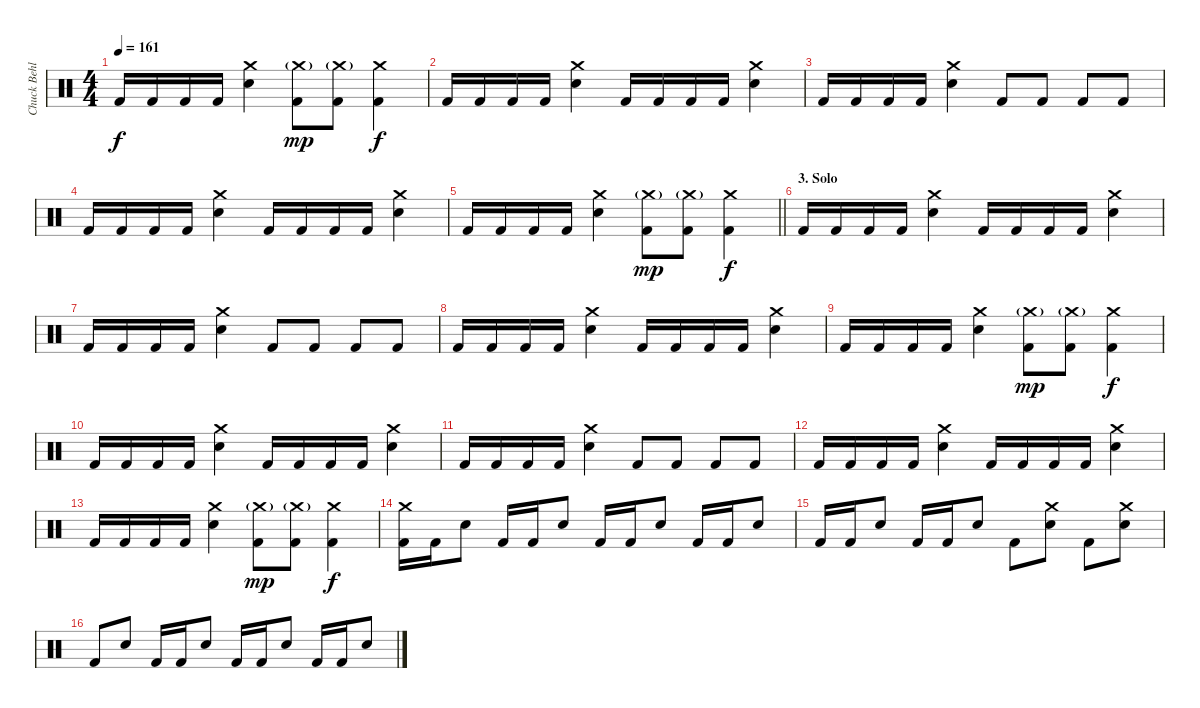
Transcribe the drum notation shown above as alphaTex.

\track ("Chuck Behler" "Chuck Behl") {instrument percussion}
\staff {score}
\articulation defaults
\ts (4 4)
\tempo 161
\clef neutral
\ks c "Kick (hit) 2".16{dy f} "Kick (hit) 2".16 "Kick (hit) 2".16 "Kick (hit) 2".16
("Crash medium (hit)" "Snare (hit) 2").4 ("Crash medium (hit)"{g} "Kick (hit) 2").8{dy mp} ("Crash medium (hit)"{g} "Kick (hit) 2").8 ("Crash medium (hit)" "Kick (hit) 2").4{dy f} |
"Kick (hit) 2".16 "Kick (hit) 2".16 "Kick (hit) 2".16 "Kick (hit) 2".16 ("Crash medium (hit)" "Snare (hit) 2").4 "Kick (hit) 2".16 "Kick (hit) 2".16 "Kick (hit) 2".16 "Kick (hit) 2".16 ("Crash medium (hit)" "Snare (hit) 2").4 |
"Kick (hit) 2".16 "Kick (hit) 2".16 "Kick (hit) 2".16 "Kick (hit) 2".16 ("Crash medium (hit)" "Snare (hit) 2").4 "Kick (hit) 2".8 "Kick (hit) 2".8 "Kick (hit) 2".8 "Kick (hit) 2".8 |
"Kick (hit) 2".16 "Kick (hit) 2".16 "Kick (hit) 2".16 "Kick (hit) 2".16 ("Crash medium (hit)" "Snare (hit) 2").4 "Kick (hit) 2".16 "Kick (hit) 2".16 "Kick (hit) 2".16 "Kick (hit) 2".16 ("Crash medium (hit)" "Snare (hit) 2").4 |
\barLineRight lightlight "Kick (hit) 2".16 "Kick (hit) 2".16 "Kick (hit) 2".16 "Kick (hit) 2".16
("Crash medium (hit)" "Snare (hit) 2").4 ("Crash medium (hit)"{g} "Kick (hit) 2").8{dy mp} ("Crash medium (hit)"{g} "Kick (hit) 2").8 ("Crash medium (hit)" "Kick (hit) 2").4{dy f} |
\section ("" "3. Solo")
"Kick (hit) 2".16 "Kick (hit) 2".16 "Kick (hit) 2".16 "Kick (hit) 2".16 ("Crash medium (hit)" "Snare (hit) 2").4 "Kick (hit) 2".16 "Kick (hit) 2".16 "Kick (hit) 2".16 "Kick (hit) 2".16 ("Crash medium (hit)" "Snare (hit) 2").4 |
"Kick (hit) 2".16 "Kick (hit) 2".16 "Kick (hit) 2".16 "Kick (hit) 2".16 ("Crash medium (hit)" "Snare (hit) 2").4 "Kick (hit) 2".8 "Kick (hit) 2".8 "Kick (hit) 2".8 "Kick (hit) 2".8 |
"Kick (hit) 2".16 "Kick (hit) 2".16 "Kick (hit) 2".16 "Kick (hit) 2".16 ("Crash medium (hit)" "Snare (hit) 2").4 "Kick (hit) 2".16 "Kick (hit) 2".16 "Kick (hit) 2".16 "Kick (hit) 2".16 ("Crash medium (hit)" "Snare (hit) 2").4 |
"Kick (hit) 2".16 "Kick (hit) 2".16 "Kick (hit) 2".16 "Kick (hit) 2".16 ("Crash medium (hit)" "Snare (hit) 2").4 ("Crash medium (hit)"{g} "Kick (hit) 2").8{dy mp} ("Crash medium (hit)"{g} "Kick (hit) 2").8 ("Crash medium (hit)" "Kick (hit) 2").4{dy f} |
"Kick (hit) 2".16 "Kick (hit) 2".16 "Kick (hit) 2".16 "Kick (hit) 2".16 ("Crash medium (hit)" "Snare (hit) 2").4 "Kick (hit) 2".16 "Kick (hit) 2".16 "Kick (hit) 2".16 "Kick (hit) 2".16 ("Crash medium (hit)" "Snare (hit) 2").4 |
"Kick (hit) 2".16 "Kick (hit) 2".16 "Kick (hit) 2".16 "Kick (hit) 2".16 ("Crash medium (hit)" "Snare (hit) 2").4 "Kick (hit) 2".8 "Kick (hit) 2".8 "Kick (hit) 2".8 "Kick (hit) 2".8 |
"Kick (hit) 2".16 "Kick (hit) 2".16 "Kick (hit) 2".16 "Kick (hit) 2".16 ("Crash medium (hit)" "Snare (hit) 2").4 "Kick (hit) 2".16 "Kick (hit) 2".16 "Kick (hit) 2".16 "Kick (hit) 2".16 ("Crash medium (hit)" "Snare (hit) 2").4 |
"Kick (hit) 2".16 "Kick (hit) 2".16 "Kick (hit) 2".16 "Kick (hit) 2".16 ("Crash medium (hit)" "Snare (hit) 2").4 ("Crash medium (hit)"{g} "Kick (hit) 2").8{dy mp} ("Crash medium (hit)"{g} "Kick (hit) 2").8 ("Crash medium (hit)" "Kick (hit) 2").4{dy f} |
("Crash medium (hit)" "Kick (hit) 2").16 "Kick (hit) 2".16 "Snare (hit) 2".8 "Kick (hit) 2".16 "Kick (hit) 2".16 "Snare (hit) 2".8 "Kick (hit) 2".16 "Kick (hit) 2".16 "Snare (hit) 2".8 "Kick (hit) 2".16 "Kick (hit) 2".16 "Snare (hit) 2".8 |
"Kick (hit) 2".16 "Kick (hit) 2".16 "Snare (hit) 2".8 "Kick (hit) 2".16 "Kick (hit) 2".16 "Snare (hit) 2".8 "Kick (hit) 2".8 ("Crash medium (hit)" "Snare (hit) 2").8 "Kick (hit) 2".8 ("Crash medium (hit)" "Snare (hit) 2").8 |
"Kick (hit) 2".8 "Snare (hit) 2".8 "Kick (hit) 2".16 "Kick (hit) 2".16 "Snare (hit) 2".8 "Kick (hit) 2".16 "Kick (hit) 2".16 "Snare (hit) 2".8 "Kick (hit) 2".16 "Kick (hit) 2".16 "Snare (hit) 2".8
